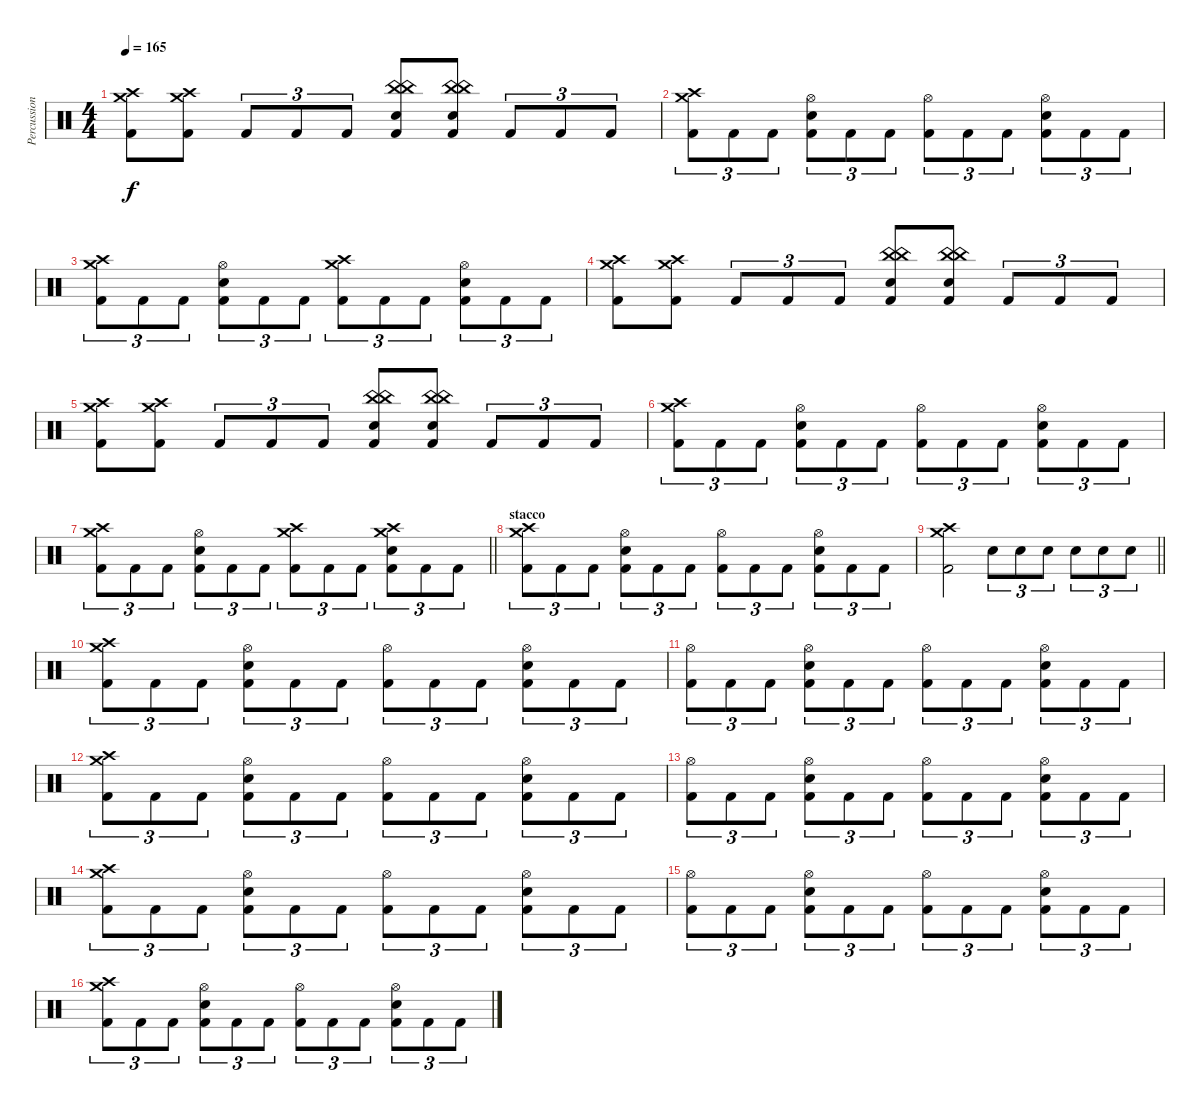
\track ("Percussioni" "Percussion") {instrument percussion}
\staff {score}
\articulation defaults
\ts (4 4)
\tempo 165
\clef neutral
\ks c
("Crash high (hit)" "Crash medium (hit)" "Kick (hit) 2").8{dy f} ("Crash high (hit)" "Crash medium (hit)" "Kick (hit) 2").8 "Kick (hit) 2".8{tu (3 2)} "Kick (hit) 2".8{tu (3 2)} "Kick (hit) 2".8{tu (3 2)} ("China (hit)" "China (hit)" "Electric Snare (hit)" "Kick (hit) 2").8 ("China (hit)" "China (hit)" "Electric Snare (hit)" "Kick (hit) 2").8 "Kick (hit) 2".8{tu (3 2)} "Kick (hit) 2".8{tu (3 2)} "Kick (hit) 2".8{tu (3 2)} |
("Crash high (hit)" "Crash medium (hit)" "Kick (hit) 2").8{tu (3 2)} "Kick (hit) 2".8{tu (3 2)} "Kick (hit) 2".8{tu (3 2)} ("Hi-Hat (open)" "Electric Snare (hit)" "Kick (hit) 2").8{tu (3 2)} "Kick (hit) 2".8{tu (3 2)} "Kick (hit) 2".8{tu (3 2)} ("Hi-Hat (open)" "Kick (hit) 2").8{tu (3 2)} "Kick (hit) 2".8{tu (3 2)} "Kick (hit) 2".8{tu (3 2)} ("Hi-Hat (open)" "Electric Snare (hit)" "Kick (hit) 2").8{tu (3 2)} "Kick (hit) 2".8{tu (3 2)} "Kick (hit) 2".8{tu (3 2)} |
("Crash high (hit)" "Crash medium (hit)" "Kick (hit) 2").8{tu (3 2)} "Kick (hit) 2".8{tu (3 2)} "Kick (hit) 2".8{tu (3 2)} ("Hi-Hat (open)" "Electric Snare (hit)" "Kick (hit) 2").8{tu (3 2)} "Kick (hit) 2".8{tu (3 2)} "Kick (hit) 2".8{tu (3 2)} ("Crash high (hit)" "Crash medium (hit)" "Kick (hit) 2").8{tu (3 2)} "Kick (hit) 2".8{tu (3 2)} "Kick (hit) 2".8{tu (3 2)} ("Hi-Hat (open)" "Electric Snare (hit)" "Kick (hit) 2").8{tu (3 2)} "Kick (hit) 2".8{tu (3 2)} "Kick (hit) 2".8{tu (3 2)} |
("Crash high (hit)" "Crash medium (hit)" "Kick (hit) 2").8 ("Crash high (hit)" "Crash medium (hit)" "Kick (hit) 2").8 "Kick (hit) 2".8{tu (3 2)} "Kick (hit) 2".8{tu (3 2)} "Kick (hit) 2".8{tu (3 2)} ("China (hit)" "China (hit)" "Electric Snare (hit)" "Kick (hit) 2").8 ("China (hit)" "China (hit)" "Electric Snare (hit)" "Kick (hit) 2").8 "Kick (hit) 2".8{tu (3 2)} "Kick (hit) 2".8{tu (3 2)} "Kick (hit) 2".8{tu (3 2)} |
("Crash high (hit)" "Crash medium (hit)" "Kick (hit) 2").8 ("Crash high (hit)" "Crash medium (hit)" "Kick (hit) 2").8 "Kick (hit) 2".8{tu (3 2)} "Kick (hit) 2".8{tu (3 2)} "Kick (hit) 2".8{tu (3 2)} ("China (hit)" "China (hit)" "Electric Snare (hit)" "Kick (hit) 2").8 ("China (hit)" "China (hit)" "Electric Snare (hit)" "Kick (hit) 2").8 "Kick (hit) 2".8{tu (3 2)} "Kick (hit) 2".8{tu (3 2)} "Kick (hit) 2".8{tu (3 2)} |
("Crash high (hit)" "Crash medium (hit)" "Kick (hit) 2").8{tu (3 2)} "Kick (hit) 2".8{tu (3 2)} "Kick (hit) 2".8{tu (3 2)} ("Hi-Hat (open)" "Electric Snare (hit)" "Kick (hit) 2").8{tu (3 2)} "Kick (hit) 2".8{tu (3 2)} "Kick (hit) 2".8{tu (3 2)} ("Hi-Hat (open)" "Kick (hit) 2").8{tu (3 2)} "Kick (hit) 2".8{tu (3 2)} "Kick (hit) 2".8{tu (3 2)} ("Hi-Hat (open)" "Electric Snare (hit)" "Kick (hit) 2").8{tu (3 2)} "Kick (hit) 2".8{tu (3 2)} "Kick (hit) 2".8{tu (3 2)} |
\barLineRight lightlight
("Crash high (hit)" "Crash medium (hit)" "Kick (hit) 2").8{tu (3 2)} "Kick (hit) 2".8{tu (3 2)} "Kick (hit) 2".8{tu (3 2)} ("Hi-Hat (open)" "Electric Snare (hit)" "Kick (hit) 2").8{tu (3 2)} "Kick (hit) 2".8{tu (3 2)} "Kick (hit) 2".8{tu (3 2)} ("Crash high (hit)" "Crash medium (hit)" "Kick (hit) 2").8{tu (3 2)} "Kick (hit) 2".8{tu (3 2)} "Kick (hit) 2".8{tu (3 2)} ("Crash high (hit)" "Crash medium (hit)" "Electric Snare (hit)" "Kick (hit) 2").8{tu (3 2)} "Kick (hit) 2".8{tu (3 2)} "Kick (hit) 2".8{tu (3 2)} |
\section ("" "stacco")
("Crash high (hit)" "Crash medium (hit)" "Kick (hit) 2").8{tu (3 2)} "Kick (hit) 2".8{tu (3 2)} "Kick (hit) 2".8{tu (3 2)} ("Hi-Hat (open)" "Electric Snare (hit)" "Kick (hit) 2").8{tu (3 2)} "Kick (hit) 2".8{tu (3 2)} "Kick (hit) 2".8{tu (3 2)} ("Hi-Hat (open)" "Kick (hit) 2").8{tu (3 2)} "Kick (hit) 2".8{tu (3 2)} "Kick (hit) 2".8{tu (3 2)} ("Hi-Hat (open)" "Electric Snare (hit)" "Kick (hit) 2").8{tu (3 2)} "Kick (hit) 2".8{tu (3 2)} "Kick (hit) 2".8{tu (3 2)} |
\barLineRight lightlight
("Crash high (hit)" "Crash medium (hit)" "Kick (hit) 2").2 "Electric Snare (hit)".8{tu (3 2)} "Electric Snare (hit)".8{tu (3 2)} "Electric Snare (hit)".8{tu (3 2)} "Electric Snare (hit)".8{tu (3 2)} "Electric Snare (hit)".8{tu (3 2)} "Electric Snare (hit)".8{tu (3 2)} |
\section ("" "")
("Crash high (hit)" "Crash medium (hit)" "Kick (hit) 2").8{tu (3 2)} "Kick (hit) 2".8{tu (3 2)} "Kick (hit) 2".8{tu (3 2)} ("Hi-Hat (open)" "Electric Snare (hit)" "Kick (hit) 2").8{tu (3 2)} "Kick (hit) 2".8{tu (3 2)} "Kick (hit) 2".8{tu (3 2)} ("Hi-Hat (open)" "Kick (hit) 2").8{tu (3 2)} "Kick (hit) 2".8{tu (3 2)} "Kick (hit) 2".8{tu (3 2)} ("Hi-Hat (open)" "Electric Snare (hit)" "Kick (hit) 2").8{tu (3 2)} "Kick (hit) 2".8{tu (3 2)} "Kick (hit) 2".8{tu (3 2)} |
("Hi-Hat (open)" "Kick (hit) 2").8{tu (3 2)} "Kick (hit) 2".8{tu (3 2)} "Kick (hit) 2".8{tu (3 2)} ("Hi-Hat (open)" "Electric Snare (hit)" "Kick (hit) 2").8{tu (3 2)} "Kick (hit) 2".8{tu (3 2)} "Kick (hit) 2".8{tu (3 2)} ("Hi-Hat (open)" "Kick (hit) 2").8{tu (3 2)} "Kick (hit) 2".8{tu (3 2)} "Kick (hit) 2".8{tu (3 2)} ("Hi-Hat (open)" "Electric Snare (hit)" "Kick (hit) 2").8{tu (3 2)} "Kick (hit) 2".8{tu (3 2)} "Kick (hit) 2".8{tu (3 2)} |
("Crash high (hit)" "Crash medium (hit)" "Kick (hit) 2").8{tu (3 2)} "Kick (hit) 2".8{tu (3 2)} "Kick (hit) 2".8{tu (3 2)} ("Hi-Hat (open)" "Electric Snare (hit)" "Kick (hit) 2").8{tu (3 2)} "Kick (hit) 2".8{tu (3 2)} "Kick (hit) 2".8{tu (3 2)} ("Hi-Hat (open)" "Kick (hit) 2").8{tu (3 2)} "Kick (hit) 2".8{tu (3 2)} "Kick (hit) 2".8{tu (3 2)} ("Hi-Hat (open)" "Electric Snare (hit)" "Kick (hit) 2").8{tu (3 2)} "Kick (hit) 2".8{tu (3 2)} "Kick (hit) 2".8{tu (3 2)} |
("Hi-Hat (open)" "Kick (hit) 2").8{tu (3 2)} "Kick (hit) 2".8{tu (3 2)} "Kick (hit) 2".8{tu (3 2)} ("Hi-Hat (open)" "Electric Snare (hit)" "Kick (hit) 2").8{tu (3 2)} "Kick (hit) 2".8{tu (3 2)} "Kick (hit) 2".8{tu (3 2)} ("Hi-Hat (open)" "Kick (hit) 2").8{tu (3 2)} "Kick (hit) 2".8{tu (3 2)} "Kick (hit) 2".8{tu (3 2)} ("Hi-Hat (open)" "Electric Snare (hit)" "Kick (hit) 2").8{tu (3 2)} "Kick (hit) 2".8{tu (3 2)} "Kick (hit) 2".8{tu (3 2)} |
("Crash high (hit)" "Crash medium (hit)" "Kick (hit) 2").8{tu (3 2)} "Kick (hit) 2".8{tu (3 2)} "Kick (hit) 2".8{tu (3 2)} ("Hi-Hat (open)" "Electric Snare (hit)" "Kick (hit) 2").8{tu (3 2)} "Kick (hit) 2".8{tu (3 2)} "Kick (hit) 2".8{tu (3 2)} ("Hi-Hat (open)" "Kick (hit) 2").8{tu (3 2)} "Kick (hit) 2".8{tu (3 2)} "Kick (hit) 2".8{tu (3 2)} ("Hi-Hat (open)" "Electric Snare (hit)" "Kick (hit) 2").8{tu (3 2)} "Kick (hit) 2".8{tu (3 2)} "Kick (hit) 2".8{tu (3 2)} |
("Hi-Hat (open)" "Kick (hit) 2").8{tu (3 2)} "Kick (hit) 2".8{tu (3 2)} "Kick (hit) 2".8{tu (3 2)} ("Hi-Hat (open)" "Electric Snare (hit)" "Kick (hit) 2").8{tu (3 2)} "Kick (hit) 2".8{tu (3 2)} "Kick (hit) 2".8{tu (3 2)} ("Hi-Hat (open)" "Kick (hit) 2").8{tu (3 2)} "Kick (hit) 2".8{tu (3 2)} "Kick (hit) 2".8{tu (3 2)} ("Hi-Hat (open)" "Electric Snare (hit)" "Kick (hit) 2").8{tu (3 2)} "Kick (hit) 2".8{tu (3 2)} "Kick (hit) 2".8{tu (3 2)} |
("Crash high (hit)" "Crash medium (hit)" "Kick (hit) 2").8{tu (3 2)} "Kick (hit) 2".8{tu (3 2)} "Kick (hit) 2".8{tu (3 2)} ("Hi-Hat (open)" "Electric Snare (hit)" "Kick (hit) 2").8{tu (3 2)} "Kick (hit) 2".8{tu (3 2)} "Kick (hit) 2".8{tu (3 2)} ("Hi-Hat (open)" "Kick (hit) 2").8{tu (3 2)} "Kick (hit) 2".8{tu (3 2)} "Kick (hit) 2".8{tu (3 2)} ("Hi-Hat (open)" "Electric Snare (hit)" "Kick (hit) 2").8{tu (3 2)} "Kick (hit) 2".8{tu (3 2)} "Kick (hit) 2".8{tu (3 2)}
